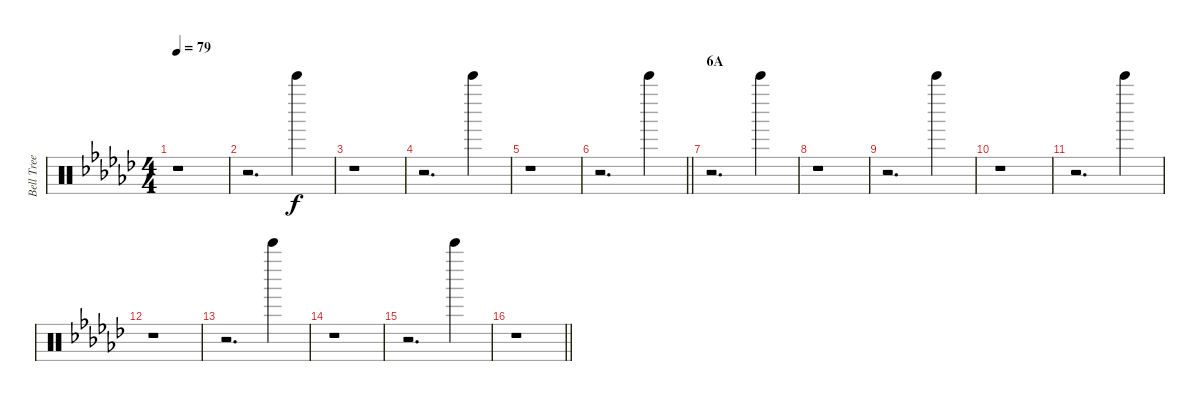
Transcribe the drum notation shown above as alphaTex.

\track ("Bell Tree" "Bell Tree") {instrument percussion}
\staff {score}
\articulation defaults
\ts (4 4)
\tempo 79
\clef neutral
\ks gb
r.1{dy f} |
r.2{d} "Bell Tree (hit)".4 |
r.1 |
r.2{d} "Bell Tree (hit)".4 |
r.1 |
\barLineRight lightlight
r.2{d} "Bell Tree (hit)".4 |
\section ("" "6A")
r.2{d} "Bell Tree (hit)".4 |
r.1 |
r.2{d} "Bell Tree (hit)".4 |
r.1 |
r.2{d} "Bell Tree (hit)".4 |
r.1 |
r.2{d} "Bell Tree (hit)".4 |
r.1 |
r.2{d} "Bell Tree (hit)".4 |
\barLineRight lightlight
r.1
